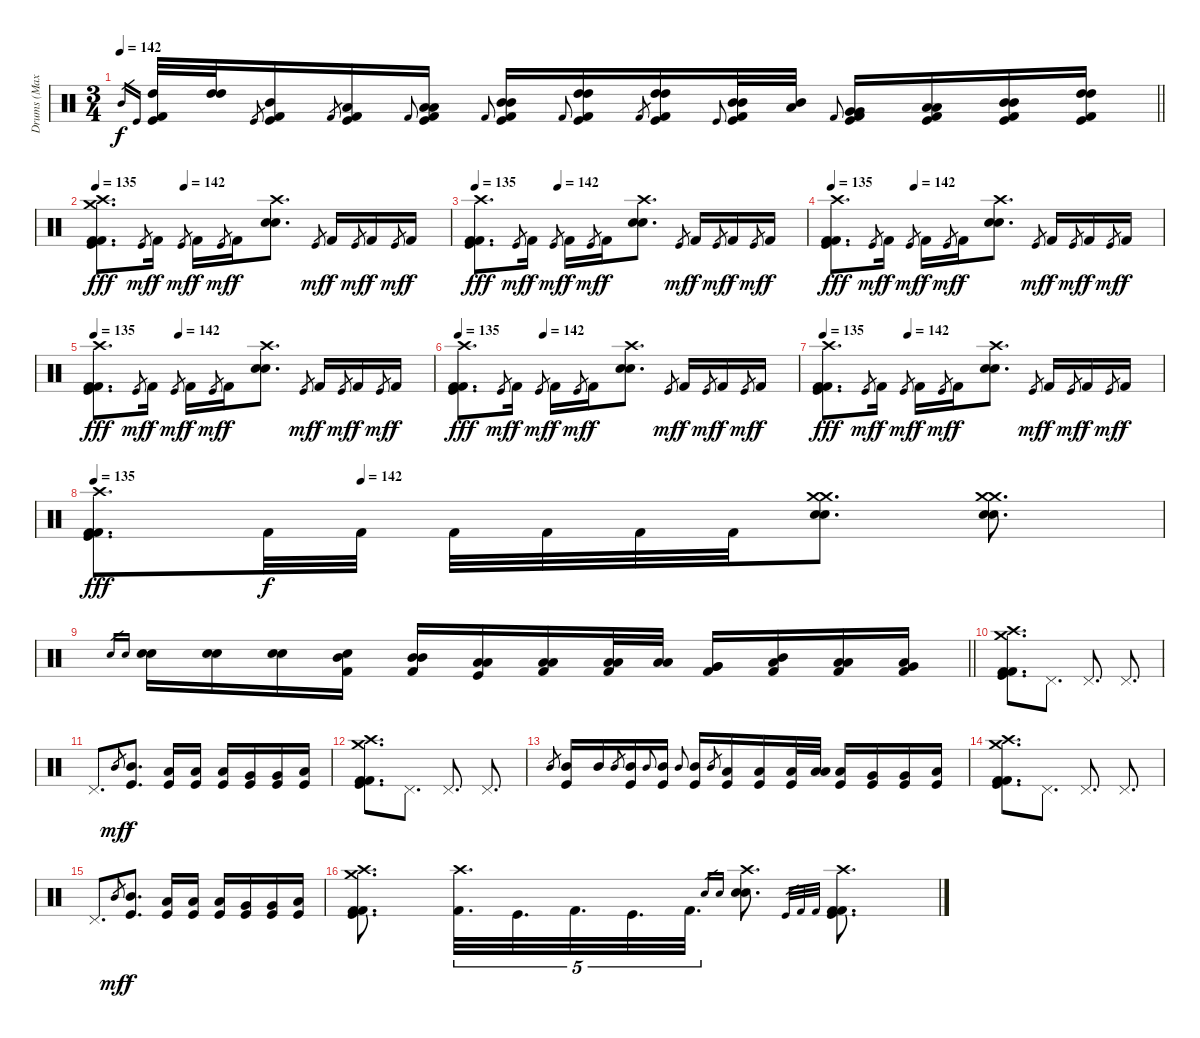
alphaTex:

\track ("Drums (Max)" "Drums (Max") {instrument percussion}
\staff {score}
\articulation defaults
\ts (3 4)
\tempo 142
\clef neutral
\barLineRight lightlight
\ks c "Mid Tom (hit)".16{gr dy f} "Kick (hit)".16{gr}
("High Tom (hit)" "Kick (hit)" "Kick (hit) 2").32 ("High Tom (hit)" "High Tom (hit)").32 "Kick (hit)".8{gr} ("Mid Tom (hit)" "Kick (hit)" "Kick (hit) 2").16 "Kick (hit) 2".8{gr} ("Low Tom (hit)" "Kick (hit)" "Kick (hit) 2").16 "Kick (hit) 2".8{gr onbeat} ("Low Tom (hit)" "Low Tom (hit)" "Kick (hit)" "Kick (hit) 2").16 "Kick (hit) 2".8{gr onbeat} ("Mid Tom (hit)" "Mid Tom (hit)" "Kick (hit)" "Kick (hit) 2").16 "Kick (hit) 2".8{gr onbeat} ("High Tom (hit)" "High Tom (hit)" "Kick (hit)" "Kick (hit) 2").16 "Kick (hit) 2".8{gr} ("High Tom (hit)" "High Tom (hit)" "Kick (hit)" "Kick (hit) 2").16 "Kick (hit)".8{gr onbeat} ("Mid Tom (hit)" "Mid Tom (hit)" "Kick (hit)" "Kick (hit) 2").32 ("Mid Tom (hit)" "Low Tom (hit)").32 "Kick (hit) 2".8{gr onbeat} ("Very Low Tom (hit)" "Very Low Tom (hit)" "Kick (hit)" "Kick (hit) 2").16 ("Low Tom (hit)" "Low Tom (hit)" "Kick (hit)" "Kick (hit) 2").16 ("Mid Tom (hit)" "Mid Tom (hit)" "Kick (hit)" "Kick (hit) 2").16 ("High Tom (hit)" "High Tom (hit)" "Kick (hit)" "Kick (hit) 2").16 |
\section ("" "")
\tempo 135
\tempo (142 0.25)
("Crash high (hit)" "Crash medium (hit)" "Kick (hit)" "Kick (hit) 2" "Kick (hit) 2").8{d dy fff} "Kick (hit)".8{gr dy mf} "Kick (hit) 2".16{dy f} "Kick (hit)".8{gr dy mf} "Kick (hit) 2".16{dy f} "Kick (hit)".8{gr dy mf} "Kick (hit) 2".16{dy f} ("Crash high (hit)" "Electric Snare (hit)" "Snare (hit) 2").8{d} "Kick (hit)".8{gr dy mf} "Kick (hit) 2".16{dy f} "Kick (hit)".8{gr dy mf} "Kick (hit) 2".16{dy f} "Kick (hit)".8{gr dy mf} "Kick (hit) 2".16{dy f} |
\tempo 135
\tempo (142 0.25)
("Crash high (hit)" "Kick (hit)" "Kick (hit) 2" "Kick (hit) 2").8{d dy fff} "Kick (hit)".8{gr dy mf} "Kick (hit) 2".16{dy f} "Kick (hit)".8{gr dy mf} "Kick (hit) 2".16{dy f} "Kick (hit)".8{gr dy mf} "Kick (hit) 2".16{dy f} ("Crash high (hit)" "Electric Snare (hit)" "Snare (hit) 2").8{d} "Kick (hit)".8{gr dy mf} "Kick (hit) 2".16{dy f} "Kick (hit)".8{gr dy mf} "Kick (hit) 2".16{dy f} "Kick (hit)".8{gr dy mf} "Kick (hit) 2".16{dy f} |
\tempo 135
\tempo (142 0.25)
("Crash high (hit)" "Kick (hit)" "Kick (hit) 2" "Kick (hit) 2").8{d dy fff} "Kick (hit)".8{gr dy mf} "Kick (hit) 2".16{dy f} "Kick (hit)".8{gr dy mf} "Kick (hit) 2".16{dy f} "Kick (hit)".8{gr dy mf} "Kick (hit) 2".16{dy f} ("Crash high (hit)" "Electric Snare (hit)" "Snare (hit) 2").8{d} "Kick (hit)".8{gr dy mf} "Kick (hit) 2".16{dy f} "Kick (hit)".8{gr dy mf} "Kick (hit) 2".16{dy f} "Kick (hit)".8{gr dy mf} "Kick (hit) 2".16{dy f} |
\tempo 135
\tempo (142 0.25)
("Crash high (hit)" "Kick (hit)" "Kick (hit) 2" "Kick (hit) 2").8{d dy fff} "Kick (hit)".8{gr dy mf} "Kick (hit) 2".16{dy f} "Kick (hit)".8{gr dy mf} "Kick (hit) 2".16{dy f} "Kick (hit)".8{gr dy mf} "Kick (hit) 2".16{dy f} ("Crash high (hit)" "Electric Snare (hit)" "Snare (hit) 2").8{d} "Kick (hit)".8{gr dy mf} "Kick (hit) 2".16{dy f} "Kick (hit)".8{gr dy mf} "Kick (hit) 2".16{dy f} "Kick (hit)".8{gr dy mf} "Kick (hit) 2".16{dy f} |
\tempo 135
\tempo (142 0.25)
("Crash high (hit)" "Kick (hit)" "Kick (hit) 2" "Kick (hit) 2").8{d dy fff} "Kick (hit)".8{gr dy mf} "Kick (hit) 2".16{dy f} "Kick (hit)".8{gr dy mf} "Kick (hit) 2".16{dy f} "Kick (hit)".8{gr dy mf} "Kick (hit) 2".16{dy f} ("Crash high (hit)" "Electric Snare (hit)" "Snare (hit) 2").8{d} "Kick (hit)".8{gr dy mf} "Kick (hit) 2".16{dy f} "Kick (hit)".8{gr dy mf} "Kick (hit) 2".16{dy f} "Kick (hit)".8{gr dy mf} "Kick (hit) 2".16{dy f} |
\tempo 135
\tempo (142 0.25)
("Crash high (hit)" "Kick (hit)" "Kick (hit) 2" "Kick (hit) 2").8{d dy fff} "Kick (hit)".8{gr dy mf} "Kick (hit) 2".16{dy f} "Kick (hit)".8{gr dy mf} "Kick (hit) 2".16{dy f} "Kick (hit)".8{gr dy mf} "Kick (hit) 2".16{dy f} ("Crash high (hit)" "Electric Snare (hit)" "Snare (hit) 2").8{d} "Kick (hit)".8{gr dy mf} "Kick (hit) 2".16{dy f} "Kick (hit)".8{gr dy mf} "Kick (hit) 2".16{dy f} "Kick (hit)".8{gr dy mf} "Kick (hit) 2".16{dy f} |
\tempo 135
\tempo (142 0.25)
("Crash high (hit)" "Kick (hit)" "Kick (hit) 2" "Kick (hit) 2").8{d dy fff} "Kick (hit) 2".32{dy f} "Kick (hit) 2".32 "Kick (hit) 2".32 "Kick (hit) 2".32 "Kick (hit) 2".32 "Kick (hit) 2".32 ("Crash medium (hit)" "Crash medium (hit)" "Electric Snare (hit)" "Snare (hit) 2").8{d} ("Crash medium (hit)" "Crash medium (hit)" "Electric Snare (hit)" "Snare (hit) 2").8{d} |
\barLineRight lightlight "Snare (hit) 2".16{gr} "Snare (hit) 2".16{gr}
("Electric Snare (hit)" "Snare (hit) 2").16 ("Electric Snare (hit)" "Snare (hit) 2").16 ("Electric Snare (hit)" "Snare (hit) 2").16 ("Mid Tom (hit)" "Snare (hit) 2" "Kick (hit) 2").16 ("Mid Tom (hit)" "Mid Tom (hit)" "Kick (hit) 2").16 ("Low Tom (hit)" "Low Tom (hit)" "Kick (hit)").16 ("Low Tom (hit)" "Low Tom (hit)" "Kick (hit) 2").16 ("Low Tom (hit)" "Low Tom (hit)" "Kick (hit) 2").32 ("Low Tom (hit)" "Low Tom (hit)").32 ("Very Low Tom (hit)" "Very Low Tom (hit)" "Kick (hit) 2").16 ("Mid Tom (hit)" "Low Tom (hit)" "Kick (hit) 2").16 ("Low Tom (hit)" "Low Tom (hit)" "Kick (hit) 2").16 ("Low Tom (hit)" "Very Low Tom (hit)" "Kick (hit) 2").16 |
\section ("" "")
("Crash high (hit)" "Crash medium (hit)" "Kick (hit)" "Kick (hit) 2" "Kick (hit) 2").8{d} "Pedal Hi-Hat (hit)".8{d} "Pedal Hi-Hat (hit)".8{d} "Pedal Hi-Hat (hit)".8{d} |
"Pedal Hi-Hat (hit)".8{d} "Mid Tom (hit)".8{gr dy mf} ("Mid Tom (hit)" "Kick (hit)").8{d dy f} ("Low Tom (hit)" "Kick (hit)").16 ("Low Tom (hit)" "Kick (hit)").16 ("Low Floor Tom (hit)" "Kick (hit)").16 ("Very Low Tom (hit)" "Kick (hit)").16 ("Very Low Tom (hit)" "Kick (hit)").16 ("Low Floor Tom (hit)" "Kick (hit)").16 |
("Crash high (hit)" "Crash medium (hit)" "Kick (hit)" "Kick (hit) 2" "Kick (hit) 2").8{d} "Pedal Hi-Hat (hit)".8{d} "Pedal Hi-Hat (hit)".8{d} "Pedal Hi-Hat (hit)".8{d} |
"Mid Tom (hit)".8{gr} ("Mid Tom (hit)" "Kick (hit)").16 "Mid Tom (hit)".16 "Mid Tom (hit)".8{gr} ("Mid Tom (hit)" "Kick (hit)").16 "Mid Tom (hit)".8{gr onbeat} ("Mid Tom (hit)" "Kick (hit)").16 "Mid Tom (hit)".8{gr onbeat} ("Mid Tom (hit)" "Kick (hit)").16 "Mid Tom (hit)".8{gr} ("Low Tom (hit)" "Kick (hit)").16 ("Low Tom (hit)" "Kick (hit)").16 ("Low Tom (hit)" "Kick (hit)").32 ("Low Tom (hit)" "Low Tom (hit)").32 ("Low Tom (hit)" "Kick (hit)").16 ("Very Low Tom (hit)" "Kick (hit)").16 ("Very Low Tom (hit)" "Kick (hit)").16 ("Low Floor Tom (hit)" "Kick (hit)").16 |
("Crash high (hit)" "Crash medium (hit)" "Kick (hit)" "Kick (hit) 2" "Kick (hit) 2").8{d} "Pedal Hi-Hat (hit)".8{d} "Pedal Hi-Hat (hit)".8{d} "Pedal Hi-Hat (hit)".8{d} |
"Pedal Hi-Hat (hit)".8{d} "Mid Tom (hit)".8{gr dy mf} ("Mid Tom (hit)" "Kick (hit)").8{d dy f} ("Low Tom (hit)" "Kick (hit)").16 ("Low Tom (hit)" "Kick (hit)").16 ("Low Floor Tom (hit)" "Kick (hit)").16 ("Very Low Tom (hit)" "Kick (hit)").16 ("Very Low Tom (hit)" "Kick (hit)").16 ("Low Floor Tom (hit)" "Kick (hit)").16 |
("Crash high (hit)" "Crash medium (hit)" "Kick (hit)" "Kick (hit) 2" "Kick (hit) 2").8{d} ("Crash high (hit)" "Kick (hit) 2").32{d tu (5 4)} "Kick (hit)".32{d tu (5 4)} "Kick (hit) 2".32{d tu (5 4)} "Kick (hit)".32{d tu (5 4)} "Kick (hit) 2".32{d tu (5 4)} "Electric Snare (hit)".16{gr} "Snare (hit) 2".16{gr} ("Crash high (hit)" "Electric Snare (hit)" "Snare (hit) 2").8{d} "Kick (hit)".32{gr} "Kick (hit) 2".32{gr} "Kick (hit) 2".32{gr} ("Crash high (hit)" "Kick (hit)" "Kick (hit) 2" "Kick (hit) 2").8{d}
